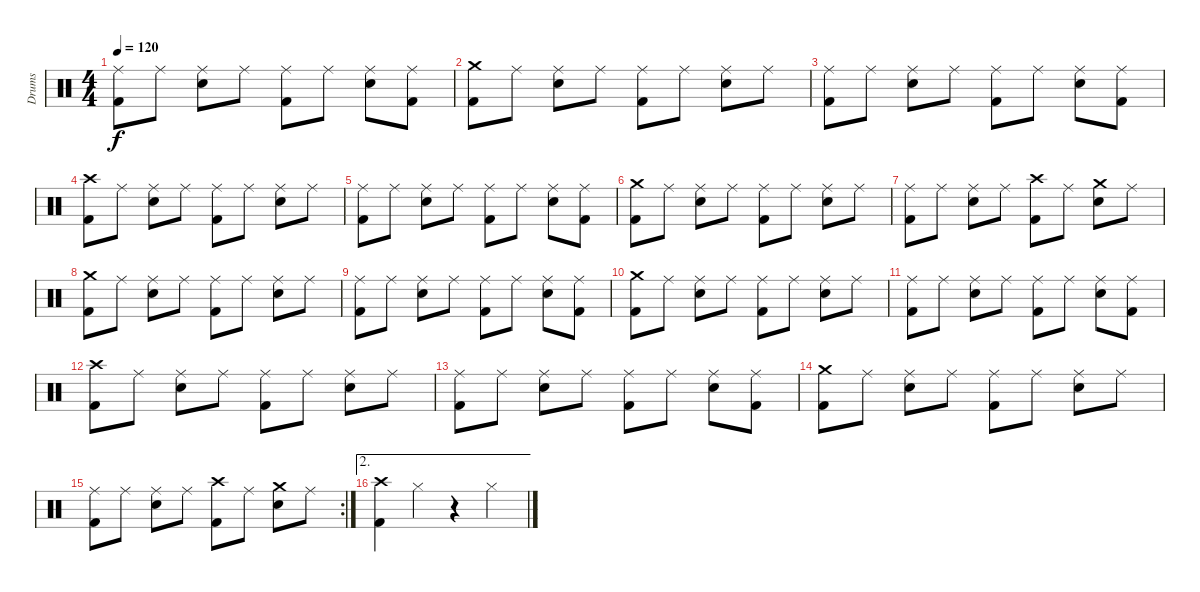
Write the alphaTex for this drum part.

\track ("Drums" "Drums") {instrument percussion}
\staff {score}
\articulation defaults
\ts (4 4)
\tempo 120
\clef neutral
\ks c
("Kick (hit) 2" "Ride (middle)").8{dy f} "Ride (middle)".8 ("Snare (hit) 2" "Ride (middle)").8 "Ride (middle)".8 ("Kick (hit) 2" "Ride (middle)").8 "Ride (middle)".8 ("Snare (hit) 2" "Ride (middle)").8 ("Kick (hit) 2" "Ride (middle)").8 |
("Kick (hit) 2" "Crash medium (hit)").8 "Ride (middle)".8 ("Snare (hit) 2" "Ride (middle)").8 "Ride (middle)".8 ("Kick (hit) 2" "Ride (middle)").8 "Ride (middle)".8 ("Snare (hit) 2" "Ride (middle)").8 "Ride (middle)".8 |
("Kick (hit) 2" "Ride (middle)").8 "Ride (middle)".8 ("Snare (hit) 2" "Ride (middle)").8 "Ride (middle)".8 ("Kick (hit) 2" "Ride (middle)").8 "Ride (middle)".8 ("Snare (hit) 2" "Ride (middle)").8 ("Kick (hit) 2" "Ride (middle)").8 |
("Kick (hit) 2" "Crash high (hit)").8 "Ride (middle)".8 ("Snare (hit) 2" "Ride (middle)").8 "Ride (middle)".8 ("Kick (hit) 2" "Ride (middle)").8 "Ride (middle)".8 ("Snare (hit) 2" "Ride (middle)").8 "Ride (middle)".8 |
("Kick (hit) 2" "Ride (middle)").8 "Ride (middle)".8 ("Snare (hit) 2" "Ride (middle)").8 "Ride (middle)".8 ("Kick (hit) 2" "Ride (middle)").8 "Ride (middle)".8 ("Snare (hit) 2" "Ride (middle)").8 ("Kick (hit) 2" "Ride (middle)").8 |
("Kick (hit) 2" "Crash medium (hit)").8 "Ride (middle)".8 ("Snare (hit) 2" "Ride (middle)").8 "Ride (middle)".8 ("Kick (hit) 2" "Ride (middle)").8 "Ride (middle)".8 ("Snare (hit) 2" "Ride (middle)").8 "Ride (middle)".8 |
("Kick (hit) 2" "Ride (middle)").8 "Ride (middle)".8 ("Snare (hit) 2" "Ride (middle)").8 "Ride (middle)".8 ("Kick (hit) 2" "Crash high (hit)").8 "Ride (middle)".8 ("Snare (hit) 2" "Crash medium (hit)").8 "Ride (middle)".8 |
("Kick (hit) 2" "Crash medium (hit)").8 "Ride (middle)".8 ("Snare (hit) 2" "Ride (middle)").8 "Ride (middle)".8 ("Kick (hit) 2" "Ride (middle)").8 "Ride (middle)".8 ("Snare (hit) 2" "Ride (middle)").8 "Ride (middle)".8 |
("Kick (hit) 2" "Ride (middle)").8 "Ride (middle)".8 ("Snare (hit) 2" "Ride (middle)").8 "Ride (middle)".8 ("Kick (hit) 2" "Ride (middle)").8 "Ride (middle)".8 ("Snare (hit) 2" "Ride (middle)").8 ("Kick (hit) 2" "Ride (middle)").8 |
("Kick (hit) 2" "Crash medium (hit)").8 "Ride (middle)".8 ("Snare (hit) 2" "Ride (middle)").8 "Ride (middle)".8 ("Kick (hit) 2" "Ride (middle)").8 "Ride (middle)".8 ("Snare (hit) 2" "Ride (middle)").8 "Ride (middle)".8 |
("Kick (hit) 2" "Ride (middle)").8 "Ride (middle)".8 ("Snare (hit) 2" "Ride (middle)").8 "Ride (middle)".8 ("Kick (hit) 2" "Ride (middle)").8 "Ride (middle)".8 ("Snare (hit) 2" "Ride (middle)").8 ("Kick (hit) 2" "Ride (middle)").8 |
("Kick (hit) 2" "Crash high (hit)").8 "Ride (middle)".8 ("Snare (hit) 2" "Ride (middle)").8 "Ride (middle)".8 ("Kick (hit) 2" "Ride (middle)").8 "Ride (middle)".8 ("Snare (hit) 2" "Ride (middle)").8 "Ride (middle)".8 |
("Kick (hit) 2" "Ride (middle)").8 "Ride (middle)".8 ("Snare (hit) 2" "Ride (middle)").8 "Ride (middle)".8 ("Kick (hit) 2" "Ride (middle)").8 "Ride (middle)".8 ("Snare (hit) 2" "Ride (middle)").8 ("Kick (hit) 2" "Ride (middle)").8 |
("Kick (hit) 2" "Crash medium (hit)").8 "Ride (middle)".8 ("Snare (hit) 2" "Ride (middle)").8 "Ride (middle)".8 ("Kick (hit) 2" "Ride (middle)").8 "Ride (middle)".8 ("Snare (hit) 2" "Ride (middle)").8 "Ride (middle)".8 |
\rc 2
("Kick (hit) 2" "Ride (middle)").8 "Ride (middle)".8 ("Snare (hit) 2" "Ride (middle)").8 "Ride (middle)".8 ("Kick (hit) 2" "Crash high (hit)").8 "Ride (middle)".8 ("Snare (hit) 2" "Crash medium (hit)").8 "Ride (middle)".8 |
\ae 2
("Kick (hit) 2" "Crash high (hit)").4 "Hi-Hat (closed)".4 r.4 "Hi-Hat (closed)".4
